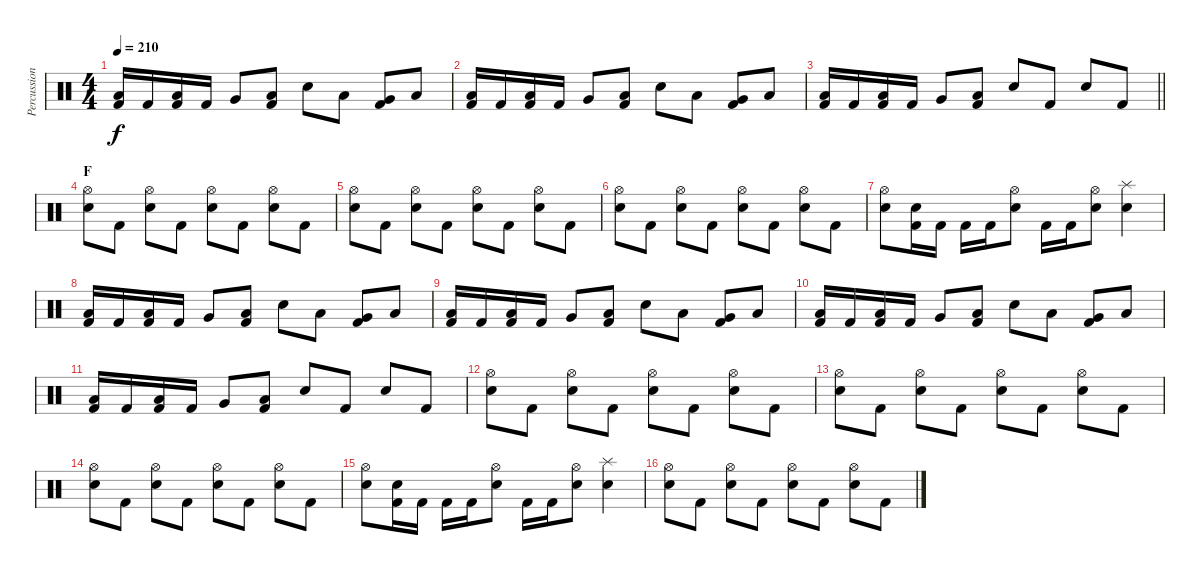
\track ("Percussion" "Percussion") {instrument percussion}
\staff {score}
\articulation defaults
\ts (4 4)
\tempo 210
\clef neutral
\ks c
("Low Tom (hit)" "Kick (hit) 2").16{dy f} "Kick (hit) 2".16 ("Low Floor Tom (hit)" "Kick (hit) 2").16 "Kick (hit) 2".16 "Very Low Tom (hit)".8 ("Low Floor Tom (hit)" "Kick (hit) 2").8 "Electric Snare (hit)".8 "Low Floor Tom (hit)".8 ("Very Low Tom (hit)" "Kick (hit) 2").8 "Low Floor Tom (hit)".8 |
("Low Tom (hit)" "Kick (hit) 2").16 "Kick (hit) 2".16 ("Low Floor Tom (hit)" "Kick (hit) 2").16 "Kick (hit) 2".16 "Very Low Tom (hit)".8 ("Low Floor Tom (hit)" "Kick (hit) 2").8 "Electric Snare (hit)".8 "Low Floor Tom (hit)".8 ("Very Low Tom (hit)" "Kick (hit) 2").8 "Low Floor Tom (hit)".8 |
\barLineRight lightlight
("Low Tom (hit)" "Kick (hit) 2").16 "Kick (hit) 2".16 ("Low Floor Tom (hit)" "Kick (hit) 2").16 "Kick (hit) 2".16 "Very Low Tom (hit)".8 ("Low Floor Tom (hit)" "Kick (hit) 2").8 "Electric Snare (hit)".8 "Kick (hit) 2".8 "Electric Snare (hit)".8 "Kick (hit) 2".8 |
\section ("" "F")
("Hi-Hat (open)" "Electric Snare (hit)").8 "Kick (hit) 2".8 ("Hi-Hat (open)" "Electric Snare (hit)").8 "Kick (hit) 2".8 ("Hi-Hat (open)" "Electric Snare (hit)").8 "Kick (hit) 2".8 ("Hi-Hat (open)" "Electric Snare (hit)").8 "Kick (hit) 2".8 |
("Hi-Hat (open)" "Electric Snare (hit)").8 "Kick (hit) 2".8 ("Hi-Hat (open)" "Electric Snare (hit)").8 "Kick (hit) 2".8 ("Hi-Hat (open)" "Electric Snare (hit)").8 "Kick (hit) 2".8 ("Hi-Hat (open)" "Electric Snare (hit)").8 "Kick (hit) 2".8 |
("Hi-Hat (open)" "Electric Snare (hit)").8 "Kick (hit) 2".8 ("Hi-Hat (open)" "Electric Snare (hit)").8 "Kick (hit) 2".8 ("Hi-Hat (open)" "Electric Snare (hit)").8 "Kick (hit) 2".8 ("Hi-Hat (open)" "Electric Snare (hit)").8 "Kick (hit) 2".8 |
("Hi-Hat (open)" "Electric Snare (hit)").8 ("Electric Snare (hit)" "Kick (hit) 2").16 "Kick (hit) 2".16 "Kick (hit) 2".16 "Kick (hit) 2".16 ("Hi-Hat (open)" "Electric Snare (hit)").8 "Kick (hit) 2".16 "Kick (hit) 2".16 ("Hi-Hat (open)" "Electric Snare (hit)").8 ("Splash (hit)" "Electric Snare (hit)").4 |
("Low Tom (hit)" "Kick (hit) 2").16 "Kick (hit) 2".16 ("Low Floor Tom (hit)" "Kick (hit) 2").16 "Kick (hit) 2".16 "Very Low Tom (hit)".8 ("Low Floor Tom (hit)" "Kick (hit) 2").8 "Electric Snare (hit)".8 "Low Floor Tom (hit)".8 ("Very Low Tom (hit)" "Kick (hit) 2").8 "Low Floor Tom (hit)".8 |
("Low Tom (hit)" "Kick (hit) 2").16 "Kick (hit) 2".16 ("Low Floor Tom (hit)" "Kick (hit) 2").16 "Kick (hit) 2".16 "Very Low Tom (hit)".8 ("Low Floor Tom (hit)" "Kick (hit) 2").8 "Electric Snare (hit)".8 "Low Floor Tom (hit)".8 ("Very Low Tom (hit)" "Kick (hit) 2").8 "Low Floor Tom (hit)".8 |
("Low Tom (hit)" "Kick (hit) 2").16 "Kick (hit) 2".16 ("Low Floor Tom (hit)" "Kick (hit) 2").16 "Kick (hit) 2".16 "Very Low Tom (hit)".8 ("Low Floor Tom (hit)" "Kick (hit) 2").8 "Electric Snare (hit)".8 "Low Floor Tom (hit)".8 ("Very Low Tom (hit)" "Kick (hit) 2").8 "Low Floor Tom (hit)".8 |
("Low Tom (hit)" "Kick (hit) 2").16 "Kick (hit) 2".16 ("Low Floor Tom (hit)" "Kick (hit) 2").16 "Kick (hit) 2".16 "Very Low Tom (hit)".8 ("Low Floor Tom (hit)" "Kick (hit) 2").8 "Electric Snare (hit)".8 "Kick (hit) 2".8 "Electric Snare (hit)".8 "Kick (hit) 2".8 |
("Hi-Hat (open)" "Electric Snare (hit)").8 "Kick (hit) 2".8 ("Hi-Hat (open)" "Electric Snare (hit)").8 "Kick (hit) 2".8 ("Hi-Hat (open)" "Electric Snare (hit)").8 "Kick (hit) 2".8 ("Hi-Hat (open)" "Electric Snare (hit)").8 "Kick (hit) 2".8 |
("Hi-Hat (open)" "Electric Snare (hit)").8 "Kick (hit) 2".8 ("Hi-Hat (open)" "Electric Snare (hit)").8 "Kick (hit) 2".8 ("Hi-Hat (open)" "Electric Snare (hit)").8 "Kick (hit) 2".8 ("Hi-Hat (open)" "Electric Snare (hit)").8 "Kick (hit) 2".8 |
("Hi-Hat (open)" "Electric Snare (hit)").8 "Kick (hit) 2".8 ("Hi-Hat (open)" "Electric Snare (hit)").8 "Kick (hit) 2".8 ("Hi-Hat (open)" "Electric Snare (hit)").8 "Kick (hit) 2".8 ("Hi-Hat (open)" "Electric Snare (hit)").8 "Kick (hit) 2".8 |
("Hi-Hat (open)" "Electric Snare (hit)").8 ("Electric Snare (hit)" "Kick (hit) 2").16 "Kick (hit) 2".16 "Kick (hit) 2".16 "Kick (hit) 2".16 ("Hi-Hat (open)" "Electric Snare (hit)").8 "Kick (hit) 2".16 "Kick (hit) 2".16 ("Hi-Hat (open)" "Electric Snare (hit)").8 ("Splash (hit)" "Electric Snare (hit)").4 |
("Hi-Hat (open)" "Electric Snare (hit)").8 "Kick (hit) 2".8 ("Hi-Hat (open)" "Electric Snare (hit)").8 "Kick (hit) 2".8 ("Hi-Hat (open)" "Electric Snare (hit)").8 "Kick (hit) 2".8 ("Hi-Hat (open)" "Electric Snare (hit)").8 "Kick (hit) 2".8
